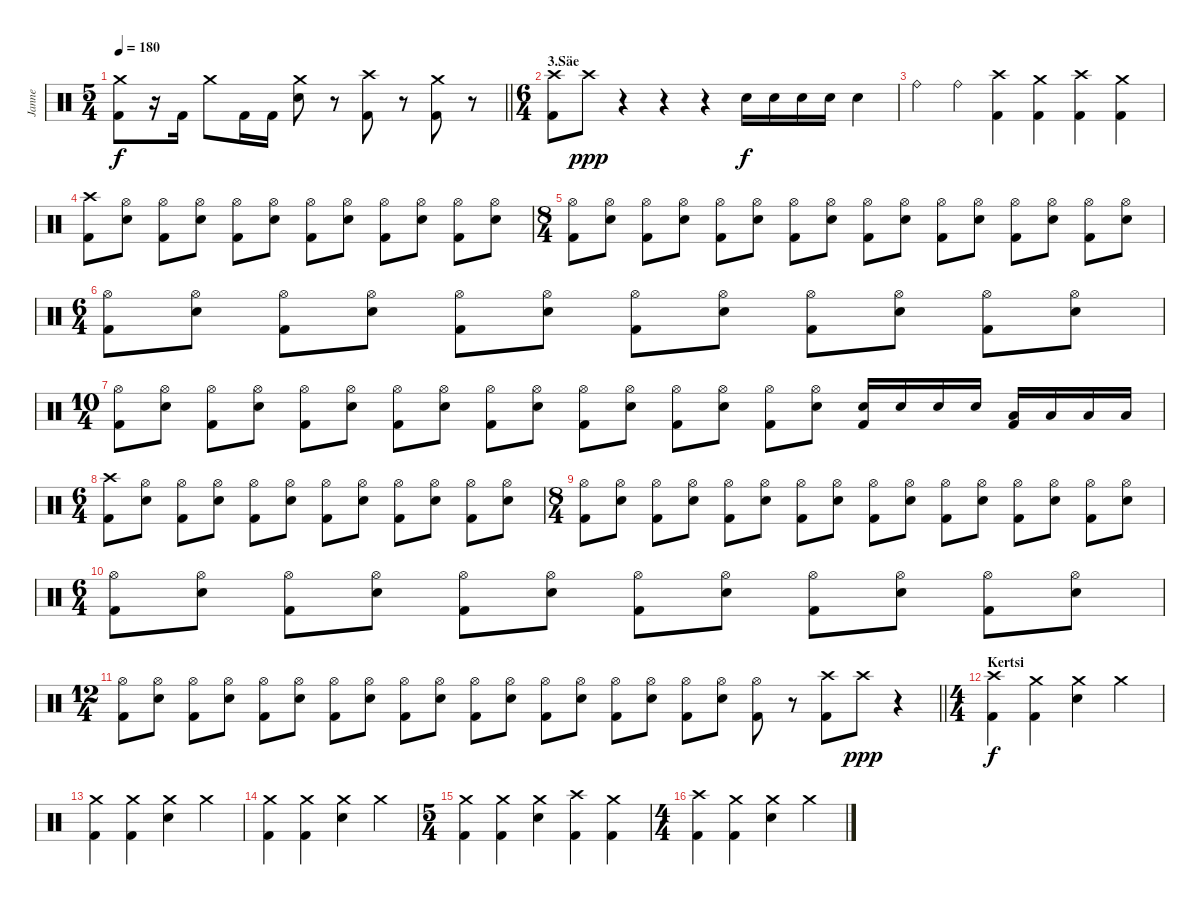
\track ("Janne" "Janne") {instrument percussion}
\staff {score}
\articulation defaults
\ts (5 4)
\tempo 180
\clef neutral
\barLineRight lightlight
\ks c
("Crash medium (hit)" "Kick (hit) 2").8{dy f} r.16 "Kick (hit) 2".16 "Crash medium (hit)".8 "Kick (hit) 2".16 "Kick (hit) 2".16 ("Crash medium (hit)" "Electric Snare (hit)").8 r.8 ("Crash high (hit)" "Kick (hit) 2").8 r.8 ("Crash medium (hit)" "Kick (hit) 2").8 r.8 |
\ts (6 4)
\section ("" "3.Säe")
("Crash high (hit)" "Kick (hit) 2").8 "Crash high (hit)".8{dy ppp} r.4 r.4 r.4 "Electric Snare (hit)".16{dy f} "Electric Snare (hit)".16 "Electric Snare (hit)".16 "Electric Snare (hit)".16 "Electric Snare (hit)".4 |
"Ride (bell)".4 "Ride (bell)".4 ("Crash high (hit)" "Kick (hit) 2").4 ("Crash medium (hit)" "Kick (hit) 2").4 ("Crash high (hit)" "Kick (hit) 2").4 ("Crash medium (hit)" "Kick (hit) 2").4 |
("Crash high (hit)" "Kick (hit) 2").8 ("Hi-Hat (open)" "Electric Snare (hit)").8 ("Hi-Hat (open)" "Kick (hit) 2").8 ("Hi-Hat (open)" "Electric Snare (hit)").8 ("Hi-Hat (open)" "Kick (hit) 2").8 ("Hi-Hat (open)" "Electric Snare (hit)").8 ("Hi-Hat (open)" "Kick (hit) 2").8 ("Hi-Hat (open)" "Electric Snare (hit)").8 ("Hi-Hat (open)" "Kick (hit) 2").8 ("Hi-Hat (open)" "Electric Snare (hit)").8 ("Hi-Hat (open)" "Kick (hit) 2").8 ("Hi-Hat (open)" "Electric Snare (hit)").8 |
\ts (8 4)
("Hi-Hat (open)" "Kick (hit) 2").8 ("Hi-Hat (open)" "Electric Snare (hit)").8 ("Hi-Hat (open)" "Kick (hit) 2").8 ("Hi-Hat (open)" "Electric Snare (hit)").8 ("Hi-Hat (open)" "Kick (hit) 2").8 ("Hi-Hat (open)" "Electric Snare (hit)").8 ("Hi-Hat (open)" "Kick (hit) 2").8 ("Hi-Hat (open)" "Electric Snare (hit)").8 ("Hi-Hat (open)" "Kick (hit) 2").8 ("Hi-Hat (open)" "Electric Snare (hit)").8 ("Hi-Hat (open)" "Kick (hit) 2").8 ("Hi-Hat (open)" "Electric Snare (hit)").8 ("Hi-Hat (open)" "Kick (hit) 2").8 ("Hi-Hat (open)" "Electric Snare (hit)").8 ("Hi-Hat (open)" "Kick (hit) 2").8 ("Hi-Hat (open)" "Electric Snare (hit)").8 |
\ts (6 4)
("Hi-Hat (open)" "Kick (hit) 2").8 ("Hi-Hat (open)" "Electric Snare (hit)").8 ("Hi-Hat (open)" "Kick (hit) 2").8 ("Hi-Hat (open)" "Electric Snare (hit)").8 ("Hi-Hat (open)" "Kick (hit) 2").8 ("Hi-Hat (open)" "Electric Snare (hit)").8 ("Hi-Hat (open)" "Kick (hit) 2").8 ("Hi-Hat (open)" "Electric Snare (hit)").8 ("Hi-Hat (open)" "Kick (hit) 2").8 ("Hi-Hat (open)" "Electric Snare (hit)").8 ("Hi-Hat (open)" "Kick (hit) 2").8 ("Hi-Hat (open)" "Electric Snare (hit)").8 |
\ts (10 4)
("Hi-Hat (open)" "Kick (hit) 2").8 ("Hi-Hat (open)" "Electric Snare (hit)").8 ("Hi-Hat (open)" "Kick (hit) 2").8 ("Hi-Hat (open)" "Electric Snare (hit)").8 ("Hi-Hat (open)" "Kick (hit) 2").8 ("Hi-Hat (open)" "Electric Snare (hit)").8 ("Hi-Hat (open)" "Kick (hit) 2").8 ("Hi-Hat (open)" "Electric Snare (hit)").8 ("Hi-Hat (open)" "Kick (hit) 2").8 ("Hi-Hat (open)" "Electric Snare (hit)").8 ("Hi-Hat (open)" "Kick (hit) 2").8 ("Hi-Hat (open)" "Electric Snare (hit)").8 ("Hi-Hat (open)" "Kick (hit) 2").8 ("Hi-Hat (open)" "Electric Snare (hit)").8 ("Hi-Hat (open)" "Kick (hit) 2").8 ("Hi-Hat (open)" "Electric Snare (hit)").8 ("Electric Snare (hit)" "Kick (hit) 2").16 "Electric Snare (hit)".16 "Electric Snare (hit)".16 "Electric Snare (hit)".16 ("Low Tom (hit)" "Kick (hit) 2").16 "Low Tom (hit)".16 "Low Tom (hit)".16 "Low Tom (hit)".16 |
\ts (6 4)
("Crash high (hit)" "Kick (hit) 2").8 ("Hi-Hat (open)" "Electric Snare (hit)").8 ("Hi-Hat (open)" "Kick (hit) 2").8 ("Hi-Hat (open)" "Electric Snare (hit)").8 ("Hi-Hat (open)" "Kick (hit) 2").8 ("Hi-Hat (open)" "Electric Snare (hit)").8 ("Hi-Hat (open)" "Kick (hit) 2").8 ("Hi-Hat (open)" "Electric Snare (hit)").8 ("Hi-Hat (open)" "Kick (hit) 2").8 ("Hi-Hat (open)" "Electric Snare (hit)").8 ("Hi-Hat (open)" "Kick (hit) 2").8 ("Hi-Hat (open)" "Electric Snare (hit)").8 |
\ts (8 4)
("Hi-Hat (open)" "Kick (hit) 2").8 ("Hi-Hat (open)" "Electric Snare (hit)").8 ("Hi-Hat (open)" "Kick (hit) 2").8 ("Hi-Hat (open)" "Electric Snare (hit)").8 ("Hi-Hat (open)" "Kick (hit) 2").8 ("Hi-Hat (open)" "Electric Snare (hit)").8 ("Hi-Hat (open)" "Kick (hit) 2").8 ("Hi-Hat (open)" "Electric Snare (hit)").8 ("Hi-Hat (open)" "Kick (hit) 2").8 ("Hi-Hat (open)" "Electric Snare (hit)").8 ("Hi-Hat (open)" "Kick (hit) 2").8 ("Hi-Hat (open)" "Electric Snare (hit)").8 ("Hi-Hat (open)" "Kick (hit) 2").8 ("Hi-Hat (open)" "Electric Snare (hit)").8 ("Hi-Hat (open)" "Kick (hit) 2").8 ("Hi-Hat (open)" "Electric Snare (hit)").8 |
\ts (6 4)
("Hi-Hat (open)" "Kick (hit) 2").8 ("Hi-Hat (open)" "Electric Snare (hit)").8 ("Hi-Hat (open)" "Kick (hit) 2").8 ("Hi-Hat (open)" "Electric Snare (hit)").8 ("Hi-Hat (open)" "Kick (hit) 2").8 ("Hi-Hat (open)" "Electric Snare (hit)").8 ("Hi-Hat (open)" "Kick (hit) 2").8 ("Hi-Hat (open)" "Electric Snare (hit)").8 ("Hi-Hat (open)" "Kick (hit) 2").8 ("Hi-Hat (open)" "Electric Snare (hit)").8 ("Hi-Hat (open)" "Kick (hit) 2").8 ("Hi-Hat (open)" "Electric Snare (hit)").8 |
\ts (12 4)
\barLineRight lightlight
("Hi-Hat (open)" "Kick (hit) 2").8 ("Hi-Hat (open)" "Electric Snare (hit)").8 ("Hi-Hat (open)" "Kick (hit) 2").8 ("Hi-Hat (open)" "Electric Snare (hit)").8 ("Hi-Hat (open)" "Kick (hit) 2").8 ("Hi-Hat (open)" "Electric Snare (hit)").8 ("Hi-Hat (open)" "Kick (hit) 2").8 ("Hi-Hat (open)" "Electric Snare (hit)").8 ("Hi-Hat (open)" "Kick (hit) 2").8 ("Hi-Hat (open)" "Electric Snare (hit)").8 ("Hi-Hat (open)" "Kick (hit) 2").8 ("Hi-Hat (open)" "Electric Snare (hit)").8 ("Hi-Hat (open)" "Kick (hit) 2").8 ("Hi-Hat (open)" "Electric Snare (hit)").8 ("Hi-Hat (open)" "Kick (hit) 2").8 ("Hi-Hat (open)" "Electric Snare (hit)").8 ("Hi-Hat (open)" "Kick (hit) 2").8 ("Hi-Hat (open)" "Electric Snare (hit)").8 ("Hi-Hat (open)" "Kick (hit) 2").8 r.8 ("Crash high (hit)" "Kick (hit) 2").8 "Crash high (hit)".8{dy ppp} r.4 |
\ts (4 4)
\section ("" "Kertsi")
("Crash high (hit)" "Kick (hit) 2").4{dy f} ("Crash medium (hit)" "Kick (hit) 2").4 ("Crash medium (hit)" "Electric Snare (hit)").4 "Crash medium (hit)".4 |
("Crash medium (hit)" "Kick (hit) 2").4 ("Crash medium (hit)" "Kick (hit) 2").4 ("Crash medium (hit)" "Electric Snare (hit)").4 "Crash medium (hit)".4 |
("Crash medium (hit)" "Kick (hit) 2").4 ("Crash medium (hit)" "Kick (hit) 2").4 ("Crash medium (hit)" "Electric Snare (hit)").4 "Crash medium (hit)".4 |
\ts (5 4)
("Crash medium (hit)" "Kick (hit) 2").4 ("Crash medium (hit)" "Kick (hit) 2").4 ("Crash medium (hit)" "Electric Snare (hit)").4 ("Crash high (hit)" "Kick (hit) 2").4 ("Crash medium (hit)" "Kick (hit) 2").4 |
\ts (4 4)
("Crash high (hit)" "Kick (hit) 2").4 ("Crash medium (hit)" "Kick (hit) 2").4 ("Crash medium (hit)" "Electric Snare (hit)").4 "Crash medium (hit)".4
